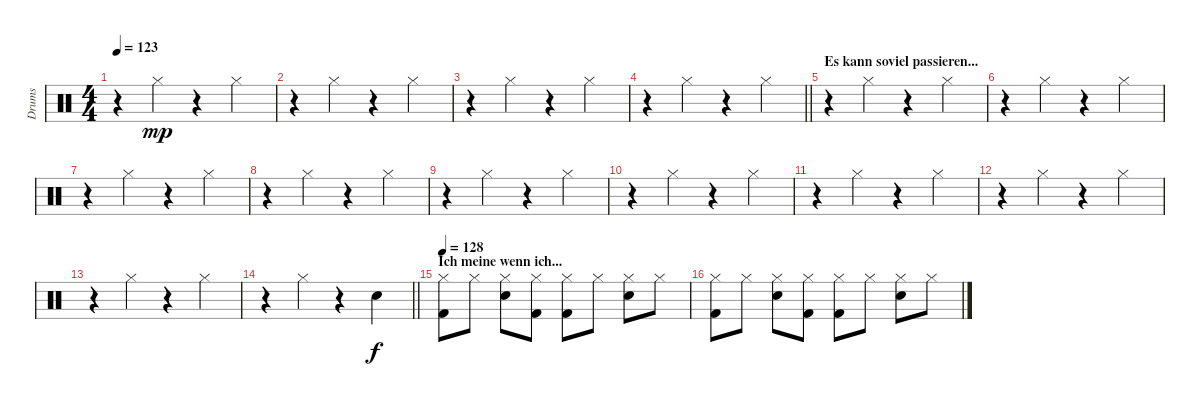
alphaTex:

\track ("Drums" "Drums") {instrument percussion}
\staff {score}
\articulation defaults
\ts (4 4)
\tempo 123
\clef neutral
\ks c
r.4{dy mp} "Hi-Hat (closed)".4 r.4 "Hi-Hat (closed)".4 |
r.4 "Hi-Hat (closed)".4 r.4 "Hi-Hat (closed)".4 |
r.4 "Hi-Hat (closed)".4 r.4 "Hi-Hat (closed)".4 |
\barLineRight lightlight
r.4 "Hi-Hat (closed)".4 r.4 "Hi-Hat (closed)".4 |
\section ("" "Es kann soviel passieren...")
r.4 "Hi-Hat (closed)".4 r.4 "Hi-Hat (closed)".4 |
r.4 "Hi-Hat (closed)".4 r.4 "Hi-Hat (closed)".4 |
r.4 "Hi-Hat (closed)".4 r.4 "Hi-Hat (closed)".4 |
r.4 "Hi-Hat (closed)".4 r.4 "Hi-Hat (closed)".4 |
r.4 "Hi-Hat (closed)".4 r.4 "Hi-Hat (closed)".4 |
r.4 "Hi-Hat (closed)".4 r.4 "Hi-Hat (closed)".4 |
r.4 "Hi-Hat (closed)".4 r.4 "Hi-Hat (closed)".4 |
r.4 "Hi-Hat (closed)".4 r.4 "Hi-Hat (closed)".4 |
r.4 "Hi-Hat (closed)".4 r.4 "Hi-Hat (closed)".4 |
\barLineRight lightlight
r.4 "Hi-Hat (closed)".4 r.4 "Snare (hit) 2".4{dy f} |
\section ("" "Ich meine wenn ich...")
\tempo 128
("Hi-Hat (closed)" "Kick (hit) 2").8 "Hi-Hat (closed)".8 ("Hi-Hat (closed)" "Snare (hit) 2").8 ("Hi-Hat (closed)" "Kick (hit) 2").8 ("Hi-Hat (closed)" "Kick (hit) 2").8 "Hi-Hat (closed)".8 ("Hi-Hat (closed)" "Snare (hit) 2").8 "Hi-Hat (closed)".8 |
("Hi-Hat (closed)" "Kick (hit) 2").8 "Hi-Hat (closed)".8 ("Hi-Hat (closed)" "Snare (hit) 2").8 ("Hi-Hat (closed)" "Kick (hit) 2").8 ("Hi-Hat (closed)" "Kick (hit) 2").8 "Hi-Hat (closed)".8 ("Hi-Hat (closed)" "Snare (hit) 2").8 "Hi-Hat (closed)".8
